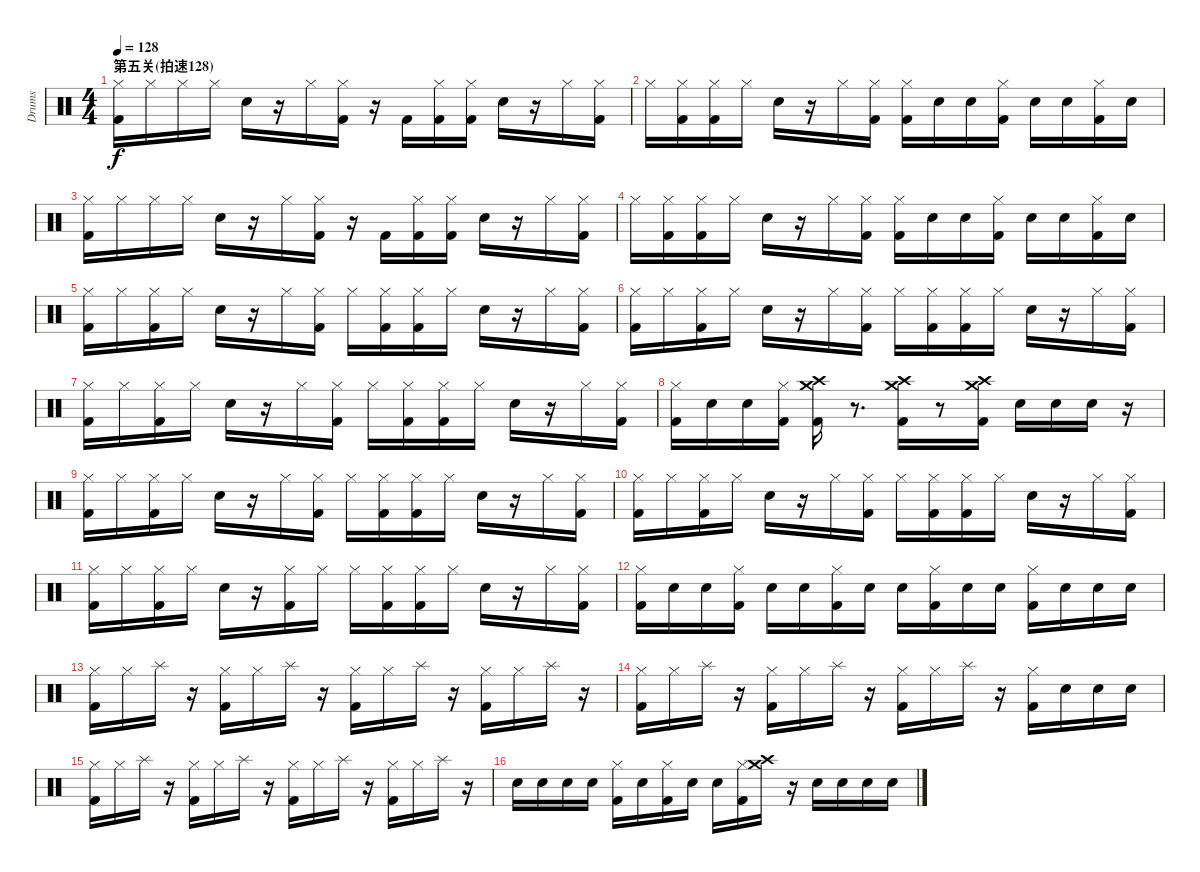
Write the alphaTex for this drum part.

\track ("Drums" "Drums") {instrument percussion}
\staff {score}
\articulation defaults
\ts (4 4)
\section ("" "第五关(拍速128)")
\tempo 128
\clef neutral
\ks c
("Hi-Hat (closed)" "Kick (hit) 2").16{dy f} "Hi-Hat (closed)".16 "Hi-Hat (closed)".16 "Hi-Hat (closed)".16 "Snare (hit) 2".16 r.16 "Hi-Hat (closed)".16 ("Hi-Hat (closed)" "Kick (hit) 2").16 r.16 "Kick (hit) 2".16 ("Hi-Hat (closed)" "Kick (hit) 2").16 ("Hi-Hat (closed)" "Kick (hit) 2").16 "Snare (hit) 2".16 r.16 "Hi-Hat (closed)".16 ("Hi-Hat (closed)" "Kick (hit) 2").16 |
"Hi-Hat (closed)".16 ("Hi-Hat (closed)" "Kick (hit) 2").16 ("Hi-Hat (closed)" "Kick (hit) 2").16 "Hi-Hat (closed)".16 "Snare (hit) 2".16 r.16 "Hi-Hat (closed)".16 ("Hi-Hat (closed)" "Kick (hit) 2").16 ("Hi-Hat (closed)" "Kick (hit) 2").16 "Snare (hit) 2".16 "Snare (hit) 2".16 ("Hi-Hat (closed)" "Kick (hit) 2").16 "Snare (hit) 2".16 "Snare (hit) 2".16 ("Hi-Hat (closed)" "Kick (hit) 2").16 "Snare (hit) 2".16 |
("Hi-Hat (closed)" "Kick (hit) 2").16 "Hi-Hat (closed)".16 "Hi-Hat (closed)".16 "Hi-Hat (closed)".16 "Snare (hit) 2".16 r.16 "Hi-Hat (closed)".16 ("Hi-Hat (closed)" "Kick (hit) 2").16 r.16 "Kick (hit) 2".16 ("Hi-Hat (closed)" "Kick (hit) 2").16 ("Hi-Hat (closed)" "Kick (hit) 2").16 "Snare (hit) 2".16 r.16 "Hi-Hat (closed)".16 ("Hi-Hat (closed)" "Kick (hit) 2").16 |
"Hi-Hat (closed)".16 ("Hi-Hat (closed)" "Kick (hit) 2").16 ("Hi-Hat (closed)" "Kick (hit) 2").16 "Hi-Hat (closed)".16 "Snare (hit) 2".16 r.16 "Hi-Hat (closed)".16 ("Hi-Hat (closed)" "Kick (hit) 2").16 ("Hi-Hat (closed)" "Kick (hit) 2").16 "Snare (hit) 2".16 "Snare (hit) 2".16 ("Hi-Hat (closed)" "Kick (hit) 2").16 "Snare (hit) 2".16 "Snare (hit) 2".16 ("Hi-Hat (closed)" "Kick (hit) 2").16 "Snare (hit) 2".16 |
("Hi-Hat (closed)" "Kick (hit) 2").16 "Hi-Hat (closed)".16 ("Hi-Hat (closed)" "Kick (hit) 2").16 "Hi-Hat (closed)".16 "Snare (hit) 2".16 r.16 "Hi-Hat (closed)".16 ("Hi-Hat (closed)" "Kick (hit) 2").16 "Hi-Hat (closed)".16 ("Hi-Hat (closed)" "Kick (hit) 2").16 ("Hi-Hat (closed)" "Kick (hit) 2").16 "Hi-Hat (closed)".16 "Snare (hit) 2".16 r.16 "Hi-Hat (closed)".16 ("Hi-Hat (closed)" "Kick (hit) 2").16 |
("Hi-Hat (closed)" "Kick (hit) 2").16 "Hi-Hat (closed)".16 ("Hi-Hat (closed)" "Kick (hit) 2").16 "Hi-Hat (closed)".16 "Snare (hit) 2".16 r.16 "Hi-Hat (closed)".16 ("Hi-Hat (closed)" "Kick (hit) 2").16 "Hi-Hat (closed)".16 ("Hi-Hat (closed)" "Kick (hit) 2").16 ("Hi-Hat (closed)" "Kick (hit) 2").16 "Hi-Hat (closed)".16 "Snare (hit) 2".16 r.16 "Hi-Hat (closed)".16 ("Hi-Hat (closed)" "Kick (hit) 2").16 |
("Hi-Hat (closed)" "Kick (hit) 2").16 "Hi-Hat (closed)".16 ("Hi-Hat (closed)" "Kick (hit) 2").16 "Hi-Hat (closed)".16 "Snare (hit) 2".16 r.16 "Hi-Hat (closed)".16 ("Hi-Hat (closed)" "Kick (hit) 2").16 "Hi-Hat (closed)".16 ("Hi-Hat (closed)" "Kick (hit) 2").16 ("Hi-Hat (closed)" "Kick (hit) 2").16 "Hi-Hat (closed)".16 "Snare (hit) 2".16 r.16 "Hi-Hat (closed)".16 ("Hi-Hat (closed)" "Kick (hit) 2").16 |
("Hi-Hat (closed)" "Kick (hit) 2").16 "Snare (hit) 2".16 "Snare (hit) 2".16 ("Hi-Hat (closed)" "Kick (hit) 2").16 ("Crash medium (hit)" "Crash high (hit)" "Kick (hit) 2").16 r.8{d} ("Crash medium (hit)" "Crash high (hit)" "Kick (hit) 2").16 r.8 ("Crash medium (hit)" "Crash high (hit)" "Kick (hit) 2").16 "Snare (hit) 2".16 "Snare (hit) 2".16 "Snare (hit) 2".16 r.16 |
("Hi-Hat (closed)" "Kick (hit) 2").16 "Hi-Hat (closed)".16 ("Hi-Hat (closed)" "Kick (hit) 2").16 "Hi-Hat (closed)".16 "Snare (hit) 2".16 r.16 "Hi-Hat (closed)".16 ("Hi-Hat (closed)" "Kick (hit) 2").16 "Hi-Hat (closed)".16 ("Hi-Hat (closed)" "Kick (hit) 2").16 ("Hi-Hat (closed)" "Kick (hit) 2").16 "Hi-Hat (closed)".16 "Snare (hit) 2".16 r.16 "Hi-Hat (closed)".16 ("Hi-Hat (closed)" "Kick (hit) 2").16 |
("Hi-Hat (closed)" "Kick (hit) 2").16 "Hi-Hat (closed)".16 ("Hi-Hat (closed)" "Kick (hit) 2").16 "Hi-Hat (closed)".16 "Snare (hit) 2".16 r.16 "Hi-Hat (closed)".16 ("Hi-Hat (closed)" "Kick (hit) 2").16 "Hi-Hat (closed)".16 ("Hi-Hat (closed)" "Kick (hit) 2").16 ("Hi-Hat (closed)" "Kick (hit) 2").16 "Hi-Hat (closed)".16 "Snare (hit) 2".16 r.16 "Hi-Hat (closed)".16 ("Hi-Hat (closed)" "Kick (hit) 2").16 |
("Hi-Hat (closed)" "Kick (hit) 2").16 "Hi-Hat (closed)".16 ("Hi-Hat (closed)" "Kick (hit) 2").16 "Hi-Hat (closed)".16 "Snare (hit) 2".16 r.16 ("Hi-Hat (closed)" "Kick (hit) 2").16 "Hi-Hat (closed)".16 "Hi-Hat (closed)".16 ("Hi-Hat (closed)" "Kick (hit) 2").16 ("Hi-Hat (closed)" "Kick (hit) 2").16 "Hi-Hat (closed)".16 "Snare (hit) 2".16 r.16 "Hi-Hat (closed)".16 ("Hi-Hat (closed)" "Kick (hit) 2").16 |
("Hi-Hat (closed)" "Kick (hit) 2").16 "Snare (hit) 2".16 "Snare (hit) 2".16 ("Hi-Hat (closed)" "Kick (hit) 2").16 "Snare (hit) 2".16 "Snare (hit) 2".16 ("Hi-Hat (closed)" "Kick (hit) 2").16 "Snare (hit) 2".16 "Snare (hit) 2".16 ("Hi-Hat (closed)" "Kick (hit) 2").16 "Snare (hit) 2".16 "Snare (hit) 2".16 ("Hi-Hat (closed)" "Kick (hit) 2").16 "Snare (hit) 2".16 "Snare (hit) 2".16 "Snare (hit) 2".16 |
("Hi-Hat (closed)" "Kick (hit) 2").16 "Hi-Hat (closed)".16 "Splash (hit)".16 r.16 ("Hi-Hat (closed)" "Kick (hit) 2").16 "Hi-Hat (closed)".16 "Splash (hit)".16 r.16 ("Hi-Hat (closed)" "Kick (hit) 2").16 "Hi-Hat (closed)".16 "Splash (hit)".16 r.16 ("Hi-Hat (closed)" "Kick (hit) 2").16 "Hi-Hat (closed)".16 "Splash (hit)".16 r.16 |
("Hi-Hat (closed)" "Kick (hit) 2").16 "Hi-Hat (closed)".16 "Splash (hit)".16 r.16 ("Hi-Hat (closed)" "Kick (hit) 2").16 "Hi-Hat (closed)".16 "Splash (hit)".16 r.16 ("Hi-Hat (closed)" "Kick (hit) 2").16 "Hi-Hat (closed)".16 "Splash (hit)".16 r.16 ("Hi-Hat (closed)" "Kick (hit) 2").16 "Snare (hit) 2".16 "Snare (hit) 2".16 "Snare (hit) 2".16 |
("Hi-Hat (closed)" "Kick (hit) 2").16 "Hi-Hat (closed)".16 "Splash (hit)".16 r.16 ("Hi-Hat (closed)" "Kick (hit) 2").16 "Hi-Hat (closed)".16 "Splash (hit)".16 r.16 ("Hi-Hat (closed)" "Kick (hit) 2").16 "Hi-Hat (closed)".16 "Splash (hit)".16 r.16 ("Hi-Hat (closed)" "Kick (hit) 2").16 "Hi-Hat (closed)".16 "Splash (hit)".16 r.16 |
"Snare (hit) 2".16 "Snare (hit) 2".16 "Snare (hit) 2".16 "Snare (hit) 2".16 ("Hi-Hat (closed)" "Kick (hit) 2").16 "Snare (hit) 2".16 ("Hi-Hat (closed)" "Kick (hit) 2").16 "Snare (hit) 2".16 "Snare (hit) 2".16 ("Hi-Hat (closed)" "Kick (hit) 2").16 ("Crash medium (hit)" "Crash high (hit)").16 r.16 "Snare (hit) 2".16 "Snare (hit) 2".16 "Snare (hit) 2".16 "Snare (hit) 2".16
